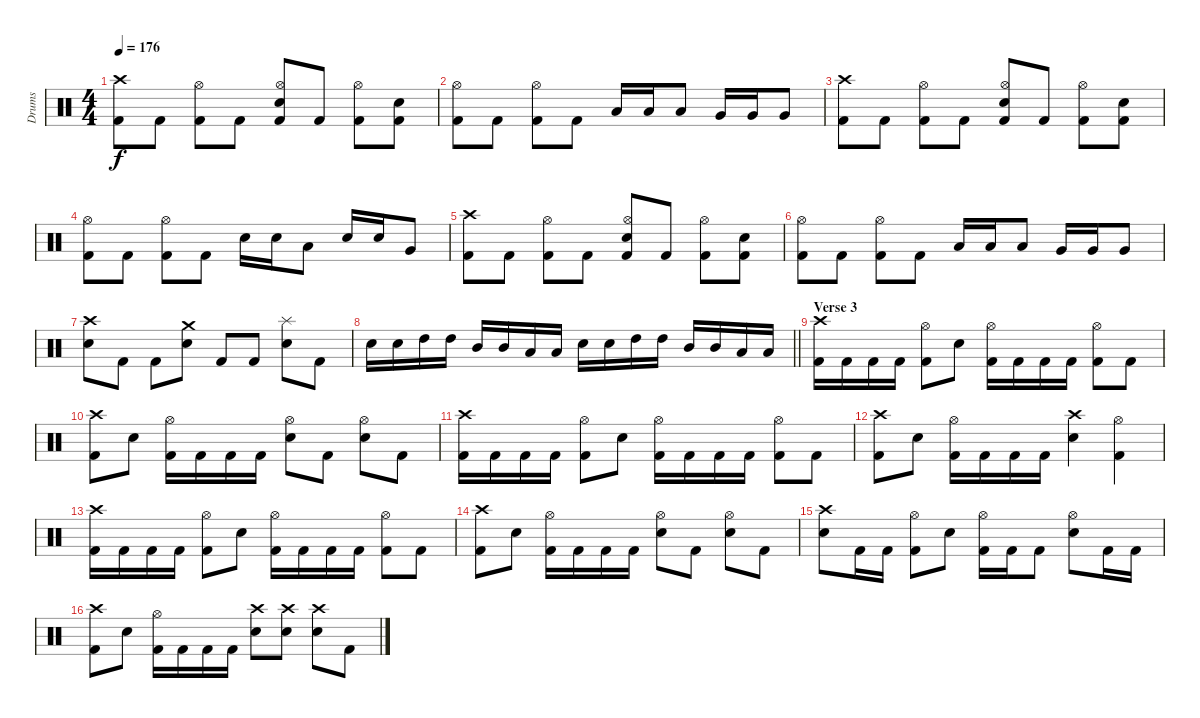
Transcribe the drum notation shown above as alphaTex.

\track ("Drums" "Drums") {instrument percussion}
\staff {score}
\articulation defaults
\ts (4 4)
\tempo 176
\clef neutral
\ks c
("Crash high (hit)" "Kick (hit) 2").8{dy f} "Kick (hit) 2".8 ("Hi-Hat (open)" "Kick (hit) 2").8 "Kick (hit) 2".8 ("Hi-Hat (open)" "Snare (hit) 2" "Kick (hit) 2").8 "Kick (hit) 2".8 ("Hi-Hat (open)" "Kick (hit) 2").8 ("Snare (hit) 2" "Kick (hit) 2").8 |
("Hi-Hat (open)" "Kick (hit) 2").8 "Kick (hit) 2".8 ("Hi-Hat (open)" "Kick (hit) 2").8 "Kick (hit) 2".8 "Low Tom (hit)".16 "Low Tom (hit)".16 "Low Tom (hit)".8 "Very Low Tom (hit)".16 "Very Low Tom (hit)".16 "Very Low Tom (hit)".8 |
("Crash high (hit)" "Kick (hit) 2").8 "Kick (hit) 2".8 ("Hi-Hat (open)" "Kick (hit) 2").8 "Kick (hit) 2".8 ("Hi-Hat (open)" "Snare (hit) 2" "Kick (hit) 2").8 "Kick (hit) 2".8 ("Hi-Hat (open)" "Kick (hit) 2").8 ("Snare (hit) 2" "Kick (hit) 2").8 |
("Hi-Hat (open)" "Kick (hit) 2").8 "Kick (hit) 2".8 ("Hi-Hat (open)" "Kick (hit) 2").8 "Kick (hit) 2".8 "Snare (hit) 2".16 "Snare (hit) 2".16 "Low Tom (hit)".8 "Snare (hit) 2".16 "Snare (hit) 2".16 "Very Low Tom (hit)".8 |
("Crash high (hit)" "Kick (hit) 2").8 "Kick (hit) 2".8 ("Hi-Hat (open)" "Kick (hit) 2").8 "Kick (hit) 2".8 ("Hi-Hat (open)" "Snare (hit) 2" "Kick (hit) 2").8 "Kick (hit) 2".8 ("Hi-Hat (open)" "Kick (hit) 2").8 ("Snare (hit) 2" "Kick (hit) 2").8 |
("Hi-Hat (open)" "Kick (hit) 2").8 "Kick (hit) 2".8 ("Hi-Hat (open)" "Kick (hit) 2").8 "Kick (hit) 2".8 "Low Tom (hit)".16 "Low Tom (hit)".16 "Low Tom (hit)".8 "Very Low Tom (hit)".16 "Very Low Tom (hit)".16 "Very Low Tom (hit)".8 |
("Crash high (hit)" "Snare (hit) 2").8 "Kick (hit) 2".8 "Kick (hit) 2".8 ("Crash medium (hit)" "Snare (hit) 2").8 "Kick (hit) 2".8 "Kick (hit) 2".8 ("Splash (hit)" "Snare (hit) 2").8 "Kick (hit) 2".8 |
\barLineRight lightlight "Snare (hit) 2".16 "Snare (hit) 2".16 "High Tom (hit)".16 "High Tom (hit)".16 "Mid Tom (hit)".16 "Mid Tom (hit)".16 "Low Tom (hit)".16 "Low Tom (hit)".16 "Snare (hit) 2".16 "Snare (hit) 2".16 "High Tom (hit)".16 "High Tom (hit)".16 "Mid Tom (hit)".16 "Mid Tom (hit)".16 "Low Tom (hit)".16 "Low Tom (hit)".16
|
\section ("" "Verse 3")
("Crash high (hit)" "Kick (hit) 2").16 "Kick (hit) 2".16 "Kick (hit) 2".16 "Kick (hit) 2".16 ("Hi-Hat (open)" "Kick (hit) 2").8 "Snare (hit) 2".8 ("Hi-Hat (open)" "Kick (hit) 2").16 "Kick (hit) 2".16 "Kick (hit) 2".16 "Kick (hit) 2".16 ("Hi-Hat (open)" "Kick (hit) 2").8 "Kick (hit) 2".8 |
("Crash high (hit)" "Kick (hit) 2").8 "Snare (hit) 2".8 ("Hi-Hat (open)" "Kick (hit) 2").16 "Kick (hit) 2".16 "Kick (hit) 2".16 "Kick (hit) 2".16 ("Hi-Hat (open)" "Snare (hit) 2").8 "Kick (hit) 2".8 ("Hi-Hat (open)" "Snare (hit) 2").8 "Kick (hit) 2".8 |
("Crash high (hit)" "Kick (hit) 2").16 "Kick (hit) 2".16 "Kick (hit) 2".16 "Kick (hit) 2".16 ("Hi-Hat (open)" "Kick (hit) 2").8 "Snare (hit) 2".8 ("Hi-Hat (open)" "Kick (hit) 2").16 "Kick (hit) 2".16 "Kick (hit) 2".16 "Kick (hit) 2".16 ("Hi-Hat (open)" "Kick (hit) 2").8 "Kick (hit) 2".8 |
("Crash high (hit)" "Kick (hit) 2").8 "Snare (hit) 2".8 ("Hi-Hat (open)" "Kick (hit) 2").16 "Kick (hit) 2".16 "Kick (hit) 2".16 "Kick (hit) 2".16 ("Crash high (hit)" "Snare (hit) 2").4 ("Hi-Hat (open)" "Kick (hit) 2").4 |
("Crash high (hit)" "Kick (hit) 2").16 "Kick (hit) 2".16 "Kick (hit) 2".16 "Kick (hit) 2".16 ("Hi-Hat (open)" "Kick (hit) 2").8 "Snare (hit) 2".8 ("Hi-Hat (open)" "Kick (hit) 2").16 "Kick (hit) 2".16 "Kick (hit) 2".16 "Kick (hit) 2".16 ("Hi-Hat (open)" "Kick (hit) 2").8 "Kick (hit) 2".8 |
("Crash high (hit)" "Kick (hit) 2").8 "Snare (hit) 2".8 ("Hi-Hat (open)" "Kick (hit) 2").16 "Kick (hit) 2".16 "Kick (hit) 2".16 "Kick (hit) 2".16 ("Hi-Hat (open)" "Snare (hit) 2").8 "Kick (hit) 2".8 ("Hi-Hat (open)" "Snare (hit) 2").8 "Kick (hit) 2".8 |
("Crash high (hit)" "Snare (hit) 2").8 "Kick (hit) 2".16 "Kick (hit) 2".16 ("Hi-Hat (open)" "Kick (hit) 2").8 "Snare (hit) 2".8 ("Hi-Hat (open)" "Kick (hit) 2").16 "Kick (hit) 2".16 "Kick (hit) 2".8 ("Hi-Hat (open)" "Snare (hit) 2").8 "Kick (hit) 2".16 "Kick (hit) 2".16 |
("Crash high (hit)" "Kick (hit) 2").8 "Snare (hit) 2".8 ("Hi-Hat (open)" "Kick (hit) 2").16 "Kick (hit) 2".16 "Kick (hit) 2".16 "Kick (hit) 2".16 ("Crash high (hit)" "Snare (hit) 2").8 ("Crash high (hit)" "Snare (hit) 2").8 ("Crash high (hit)" "Snare (hit) 2").8 "Kick (hit) 2".8
